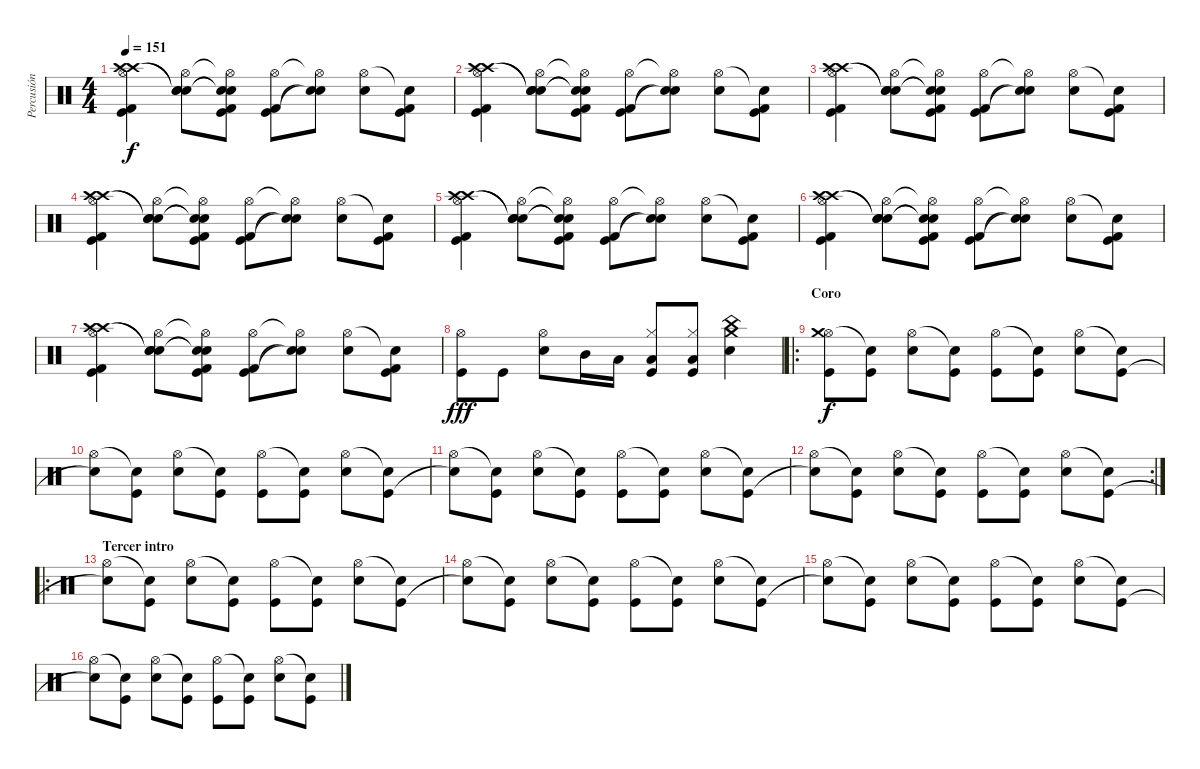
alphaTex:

\track ("Percusión" "Percusión") {instrument percussion}
\staff {score}
\articulation defaults
\ts (4 4)
\tempo 151
\clef neutral
\ks c
("Hi-Hat (open)" "Crash high (hit)" "Crash high (hit)" "Kick (hit)" "Kick (hit) 2").4{dy f} ("Hi-Hat (open)" "Snare (hit)"{t} "Snare (hit)"{t} "Electric Snare (hit)").8 ("Hi-Hat (open)"{t} "Snare (hit)"{t} "Snare (hit)"{t} "Kick (hit)" "Kick (hit) 2").8 ("Hi-Hat (open)" "Kick (hit)" "Kick (hit) 2").8 ("Hi-Hat (open)"{t} "Electric Snare (hit)"{t} "Snare (hit)"{t}).8 ("Hi-Hat (open)" "Electric Snare (hit)").8 ("Snare (hit)"{t} "Kick (hit)" "Kick (hit) 2").8 |
("Hi-Hat (open)" "Crash high (hit)" "Crash high (hit)" "Kick (hit)" "Kick (hit) 2").4 ("Hi-Hat (open)" "Snare (hit)"{t} "Snare (hit)"{t} "Electric Snare (hit)").8 ("Hi-Hat (open)"{t} "Snare (hit)"{t} "Snare (hit)"{t} "Kick (hit)" "Kick (hit) 2").8 ("Hi-Hat (open)" "Kick (hit)" "Kick (hit) 2").8 ("Hi-Hat (open)"{t} "Electric Snare (hit)"{t} "Snare (hit)"{t}).8 ("Hi-Hat (open)" "Electric Snare (hit)").8 ("Snare (hit)"{t} "Kick (hit)" "Kick (hit) 2").8 |
("Hi-Hat (open)" "Crash high (hit)" "Crash high (hit)" "Kick (hit)" "Kick (hit) 2").4 ("Hi-Hat (open)" "Snare (hit)"{t} "Snare (hit)"{t} "Electric Snare (hit)").8 ("Hi-Hat (open)"{t} "Snare (hit)"{t} "Snare (hit)"{t} "Kick (hit)" "Kick (hit) 2").8 ("Hi-Hat (open)" "Kick (hit)" "Kick (hit) 2").8 ("Hi-Hat (open)"{t} "Electric Snare (hit)"{t} "Snare (hit)"{t}).8 ("Hi-Hat (open)" "Electric Snare (hit)").8 ("Snare (hit)"{t} "Kick (hit)" "Kick (hit) 2").8 |
("Hi-Hat (open)" "Crash high (hit)" "Crash high (hit)" "Kick (hit)" "Kick (hit) 2").4 ("Hi-Hat (open)" "Snare (hit)"{t} "Snare (hit)"{t} "Electric Snare (hit)").8 ("Hi-Hat (open)"{t} "Snare (hit)"{t} "Snare (hit)"{t} "Kick (hit)" "Kick (hit) 2").8 ("Hi-Hat (open)" "Kick (hit)" "Kick (hit) 2").8 ("Hi-Hat (open)"{t} "Electric Snare (hit)"{t} "Snare (hit)"{t}).8 ("Hi-Hat (open)" "Electric Snare (hit)").8 ("Snare (hit)"{t} "Kick (hit)" "Kick (hit) 2").8 |
("Hi-Hat (open)" "Crash high (hit)" "Crash high (hit)" "Kick (hit)" "Kick (hit) 2").4 ("Hi-Hat (open)" "Snare (hit)"{t} "Snare (hit)"{t} "Electric Snare (hit)").8 ("Hi-Hat (open)"{t} "Snare (hit)"{t} "Snare (hit)"{t} "Kick (hit)" "Kick (hit) 2").8 ("Hi-Hat (open)" "Kick (hit)" "Kick (hit) 2").8 ("Hi-Hat (open)"{t} "Electric Snare (hit)"{t} "Snare (hit)"{t}).8 ("Hi-Hat (open)" "Electric Snare (hit)").8 ("Snare (hit)"{t} "Kick (hit)" "Kick (hit) 2").8 |
("Hi-Hat (open)" "Crash high (hit)" "Crash high (hit)" "Kick (hit)" "Kick (hit) 2").4 ("Hi-Hat (open)" "Snare (hit)"{t} "Snare (hit)"{t} "Electric Snare (hit)").8 ("Hi-Hat (open)"{t} "Snare (hit)"{t} "Snare (hit)"{t} "Kick (hit)" "Kick (hit) 2").8 ("Hi-Hat (open)" "Kick (hit)" "Kick (hit) 2").8 ("Hi-Hat (open)"{t} "Electric Snare (hit)"{t} "Snare (hit)"{t}).8 ("Hi-Hat (open)" "Electric Snare (hit)").8 ("Snare (hit)"{t} "Kick (hit)" "Kick (hit) 2").8 |
("Hi-Hat (open)" "Crash high (hit)" "Crash high (hit)" "Kick (hit)" "Kick (hit) 2").4 ("Hi-Hat (open)" "Snare (hit)"{t} "Snare (hit)"{t} "Electric Snare (hit)").8 ("Hi-Hat (open)"{t} "Snare (hit)"{t} "Snare (hit)"{t} "Kick (hit)" "Kick (hit) 2").8 ("Hi-Hat (open)" "Kick (hit)" "Kick (hit) 2").8 ("Hi-Hat (open)"{t} "Electric Snare (hit)"{t} "Snare (hit)"{t}).8 ("Hi-Hat (open)" "Electric Snare (hit)").8 ("Snare (hit)"{t} "Kick (hit)" "Kick (hit) 2").8 |
("Hi-Hat (open)" "Kick (hit)").8{dy fff} "Kick (hit)".8 ("Hi-Hat (open)" "Snare (hit) 2").8 "Mid Tom (hit)".16 "Low Tom (hit)".16 ("Hi-Hat (closed)" "Low Floor Tom (hit)" "Kick (hit)").8 ("Hi-Hat (closed)" "Low Floor Tom (hit)" "Kick (hit)").8 ("Crash medium (hit)" "China (hit)" "Snare (hit) 2").4 |
\ro
\section ("" "Coro")
("Hi-Hat (open)" "Kick (hit)" "Crash medium (hit)").8{dy f} ("Snare (hit)"{t} "Kick (hit)").8 ("Hi-Hat (open)" "Electric Snare (hit)").8 ("Snare (hit)"{t} "Kick (hit)").8 ("Hi-Hat (open)" "Kick (hit)").8 ("Snare (hit)"{t} "Kick (hit)").8 ("Hi-Hat (open)" "Electric Snare (hit)").8 ("Snare (hit)"{t} "Kick (hit)").8 |
("Hi-Hat (open)" "Snare (hit)"{t}).8 ("Snare (hit)"{t} "Kick (hit)").8 ("Hi-Hat (open)" "Electric Snare (hit)").8 ("Snare (hit)"{t} "Kick (hit)").8 ("Hi-Hat (open)" "Kick (hit)").8 ("Snare (hit)"{t} "Kick (hit)").8 ("Hi-Hat (open)" "Electric Snare (hit)").8 ("Snare (hit)"{t} "Kick (hit)").8 |
("Hi-Hat (open)" "Snare (hit)"{t}).8 ("Snare (hit)"{t} "Kick (hit)").8 ("Hi-Hat (open)" "Electric Snare (hit)").8 ("Snare (hit)"{t} "Kick (hit)").8 ("Hi-Hat (open)" "Kick (hit)").8 ("Snare (hit)"{t} "Kick (hit)").8 ("Hi-Hat (open)" "Electric Snare (hit)").8 ("Snare (hit)"{t} "Kick (hit)").8 |
\rc 2
("Hi-Hat (open)" "Snare (hit)"{t}).8 ("Snare (hit)"{t} "Kick (hit)").8 ("Hi-Hat (open)" "Electric Snare (hit)").8 ("Snare (hit)"{t} "Kick (hit)").8 ("Hi-Hat (open)" "Kick (hit)").8 ("Snare (hit)"{t} "Kick (hit)").8 ("Hi-Hat (open)" "Electric Snare (hit)").8 ("Snare (hit)"{t} "Kick (hit)").8 |
\ro
\section ("" "Tercer intro")
("Hi-Hat (open)" "Snare (hit)"{t}).8 ("Snare (hit)"{t} "Kick (hit)").8 ("Hi-Hat (open)" "Electric Snare (hit)").8 ("Snare (hit)"{t} "Kick (hit)").8 ("Hi-Hat (open)" "Kick (hit)").8 ("Snare (hit)"{t} "Kick (hit)").8 ("Hi-Hat (open)" "Electric Snare (hit)").8 ("Snare (hit)"{t} "Kick (hit)").8 |
("Hi-Hat (open)" "Snare (hit)"{t}).8 ("Snare (hit)"{t} "Kick (hit)").8 ("Hi-Hat (open)" "Electric Snare (hit)").8 ("Snare (hit)"{t} "Kick (hit)").8 ("Hi-Hat (open)" "Kick (hit)").8 ("Snare (hit)"{t} "Kick (hit)").8 ("Hi-Hat (open)" "Electric Snare (hit)").8 ("Snare (hit)"{t} "Kick (hit)").8 |
("Hi-Hat (open)" "Snare (hit)"{t}).8 ("Snare (hit)"{t} "Kick (hit)").8 ("Hi-Hat (open)" "Electric Snare (hit)").8 ("Snare (hit)"{t} "Kick (hit)").8 ("Hi-Hat (open)" "Kick (hit)").8 ("Snare (hit)"{t} "Kick (hit)").8 ("Hi-Hat (open)" "Electric Snare (hit)").8 ("Snare (hit)"{t} "Kick (hit)").8 |
("Hi-Hat (open)" "Snare (hit)"{t}).8 ("Snare (hit)"{t} "Kick (hit)").8 ("Hi-Hat (open)" "Electric Snare (hit)").8 ("Snare (hit)"{t} "Kick (hit)").8 ("Hi-Hat (open)" "Kick (hit)").8 ("Snare (hit)"{t} "Kick (hit)").8 ("Hi-Hat (open)" "Electric Snare (hit)").8 ("Snare (hit)"{t} "Kick (hit)").8
